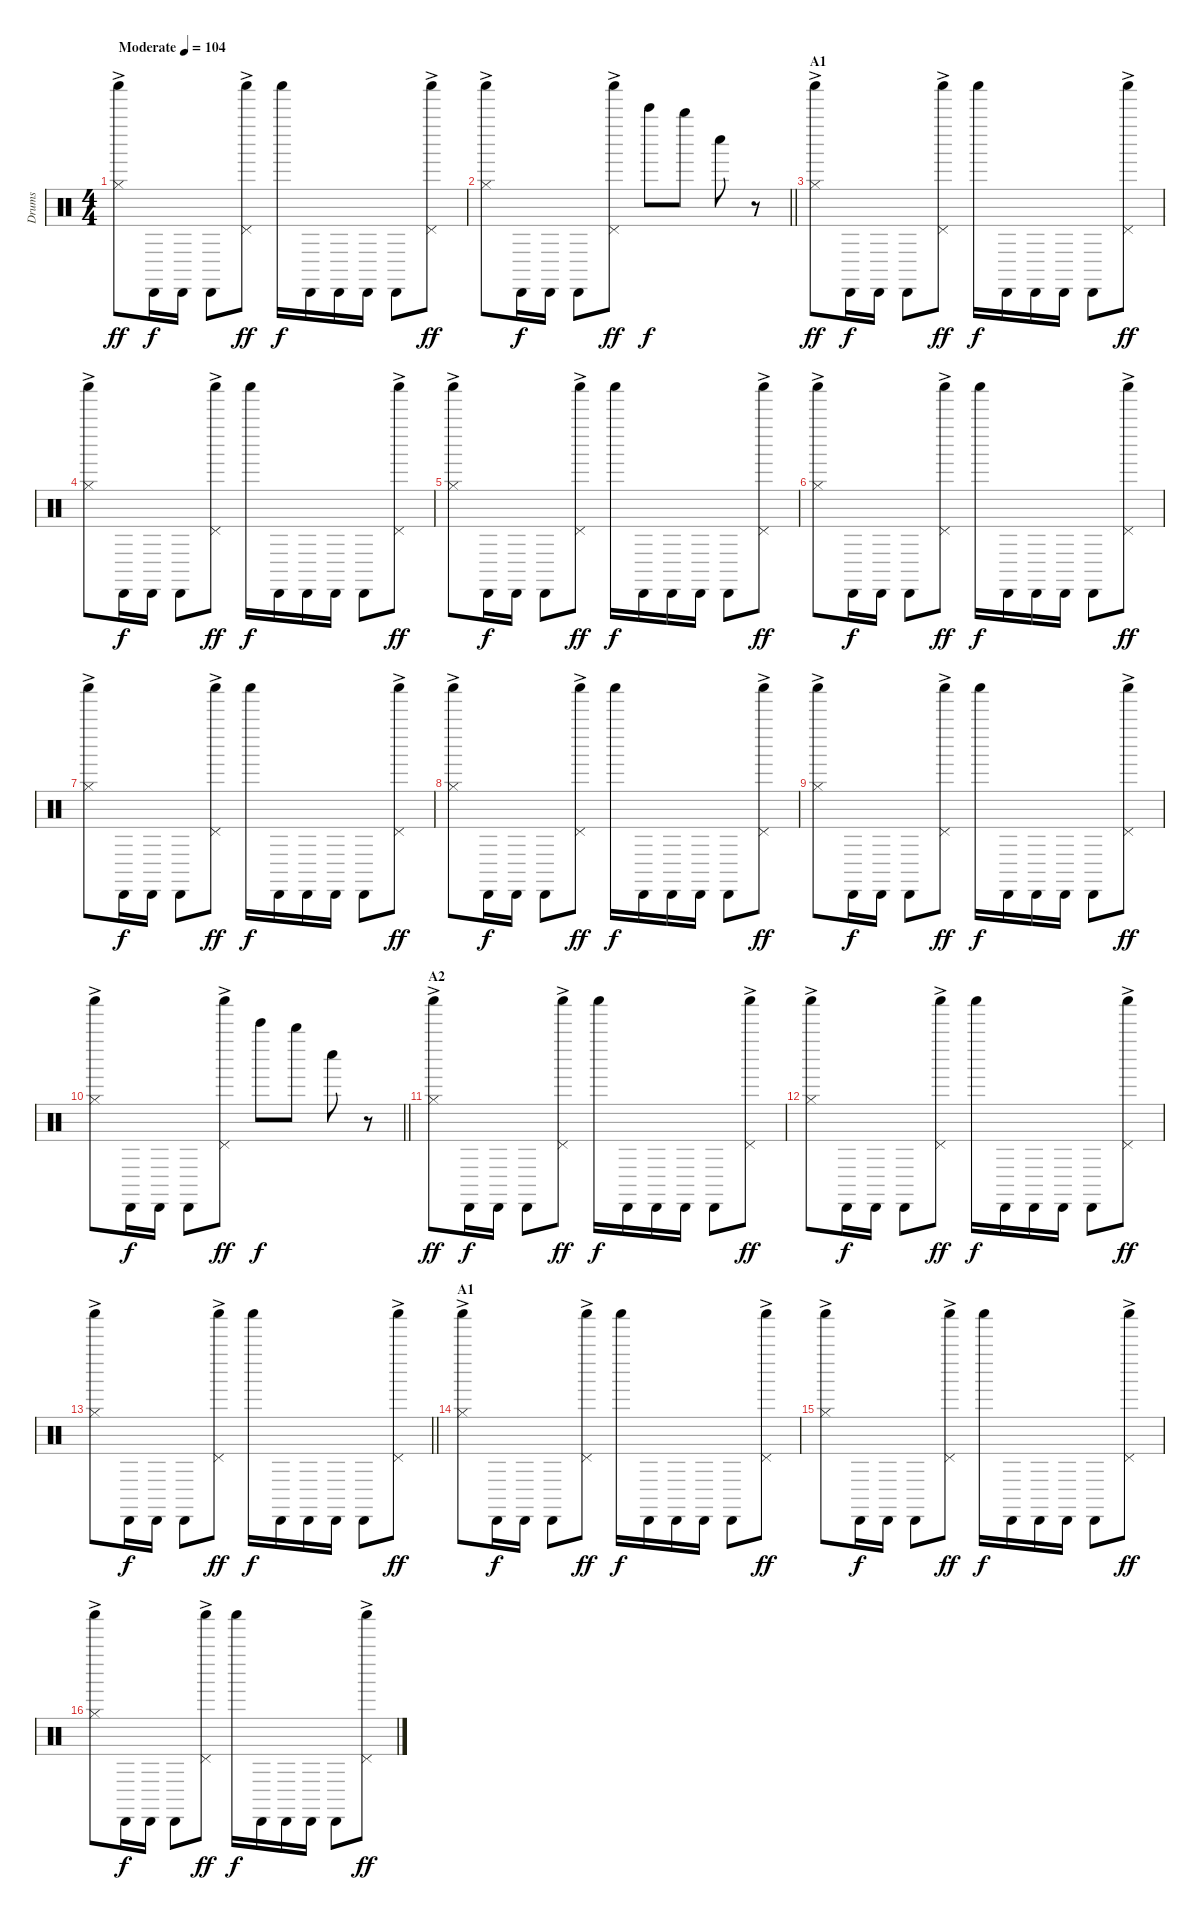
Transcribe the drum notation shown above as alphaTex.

\track ("Drums" "Drums") {instrument percussion}
\staff {score}
\articulation defaults
\ts (4 4)
\tempo (104 "Moderate")
\clef neutral
\ks c
("Shaker (hit)" "Hi-Hat (closed)"{ac}).8{dy ff} "Cabasa (hit)".16{dy f} "Cabasa (hit)".16 "Cabasa (hit)".8 ("Shaker (hit)" "Pedal Hi-Hat (hit)"{ac}).8{dy ff} "Shaker (hit)".16{dy f} "Cabasa (hit)".16 "Cabasa (hit)".16 "Cabasa (hit)".16 "Cabasa (hit)".8 ("Shaker (hit)" "Pedal Hi-Hat (hit)"{ac}).8{dy ff} |
\barLineRight lightlight
("Shaker (hit)" "Hi-Hat (closed)"{ac}).8 "Cabasa (hit)".16{dy f} "Cabasa (hit)".16 "Cabasa (hit)".8 ("Shaker (hit)" "Pedal Hi-Hat (hit)"{ac}).8{dy ff} "Bell Tree (hit)".8{dy f} "Whistle high (hit)".8 "Whistle low (hit)".8 r.8 |
\section ("" "A1")
("Shaker (hit)" "Hi-Hat (closed)"{ac}).8{dy ff} "Cabasa (hit)".16{dy f} "Cabasa (hit)".16 "Cabasa (hit)".8 ("Shaker (hit)" "Pedal Hi-Hat (hit)"{ac}).8{dy ff} "Shaker (hit)".16{dy f} "Cabasa (hit)".16 "Cabasa (hit)".16 "Cabasa (hit)".16 "Cabasa (hit)".8 ("Shaker (hit)" "Pedal Hi-Hat (hit)"{ac}).8{dy ff} |
("Shaker (hit)" "Hi-Hat (closed)"{ac}).8 "Cabasa (hit)".16{dy f} "Cabasa (hit)".16 "Cabasa (hit)".8 ("Shaker (hit)" "Pedal Hi-Hat (hit)"{ac}).8{dy ff} "Shaker (hit)".16{dy f} "Cabasa (hit)".16 "Cabasa (hit)".16 "Cabasa (hit)".16 "Cabasa (hit)".8 ("Shaker (hit)" "Pedal Hi-Hat (hit)"{ac}).8{dy ff} |
("Shaker (hit)" "Hi-Hat (closed)"{ac}).8 "Cabasa (hit)".16{dy f} "Cabasa (hit)".16 "Cabasa (hit)".8 ("Shaker (hit)" "Pedal Hi-Hat (hit)"{ac}).8{dy ff} "Shaker (hit)".16{dy f} "Cabasa (hit)".16 "Cabasa (hit)".16 "Cabasa (hit)".16 "Cabasa (hit)".8 ("Shaker (hit)" "Pedal Hi-Hat (hit)"{ac}).8{dy ff} |
("Shaker (hit)" "Hi-Hat (closed)"{ac}).8 "Cabasa (hit)".16{dy f} "Cabasa (hit)".16 "Cabasa (hit)".8 ("Shaker (hit)" "Pedal Hi-Hat (hit)"{ac}).8{dy ff} "Shaker (hit)".16{dy f} "Cabasa (hit)".16 "Cabasa (hit)".16 "Cabasa (hit)".16 "Cabasa (hit)".8 ("Shaker (hit)" "Pedal Hi-Hat (hit)"{ac}).8{dy ff} |
("Shaker (hit)" "Hi-Hat (closed)"{ac}).8 "Cabasa (hit)".16{dy f} "Cabasa (hit)".16 "Cabasa (hit)".8 ("Shaker (hit)" "Pedal Hi-Hat (hit)"{ac}).8{dy ff} "Shaker (hit)".16{dy f} "Cabasa (hit)".16 "Cabasa (hit)".16 "Cabasa (hit)".16 "Cabasa (hit)".8 ("Shaker (hit)" "Pedal Hi-Hat (hit)"{ac}).8{dy ff} |
("Shaker (hit)" "Hi-Hat (closed)"{ac}).8 "Cabasa (hit)".16{dy f} "Cabasa (hit)".16 "Cabasa (hit)".8 ("Shaker (hit)" "Pedal Hi-Hat (hit)"{ac}).8{dy ff} "Shaker (hit)".16{dy f} "Cabasa (hit)".16 "Cabasa (hit)".16 "Cabasa (hit)".16 "Cabasa (hit)".8 ("Shaker (hit)" "Pedal Hi-Hat (hit)"{ac}).8{dy ff} |
("Shaker (hit)" "Hi-Hat (closed)"{ac}).8 "Cabasa (hit)".16{dy f} "Cabasa (hit)".16 "Cabasa (hit)".8 ("Shaker (hit)" "Pedal Hi-Hat (hit)"{ac}).8{dy ff} "Shaker (hit)".16{dy f} "Cabasa (hit)".16 "Cabasa (hit)".16 "Cabasa (hit)".16 "Cabasa (hit)".8 ("Shaker (hit)" "Pedal Hi-Hat (hit)"{ac}).8{dy ff} |
\barLineRight lightlight
("Shaker (hit)" "Hi-Hat (closed)"{ac}).8 "Cabasa (hit)".16{dy f} "Cabasa (hit)".16 "Cabasa (hit)".8 ("Shaker (hit)" "Pedal Hi-Hat (hit)"{ac}).8{dy ff} "Bell Tree (hit)".8{dy f} "Whistle high (hit)".8 "Whistle low (hit)".8 r.8 |
\section ("" "A2")
("Shaker (hit)" "Hi-Hat (closed)"{ac}).8{dy ff} "Cabasa (hit)".16{dy f} "Cabasa (hit)".16 "Cabasa (hit)".8 ("Shaker (hit)" "Pedal Hi-Hat (hit)"{ac}).8{dy ff} "Shaker (hit)".16{dy f} "Cabasa (hit)".16 "Cabasa (hit)".16 "Cabasa (hit)".16 "Cabasa (hit)".8 ("Shaker (hit)" "Pedal Hi-Hat (hit)"{ac}).8{dy ff} |
("Shaker (hit)" "Hi-Hat (closed)"{ac}).8 "Cabasa (hit)".16{dy f} "Cabasa (hit)".16 "Cabasa (hit)".8 ("Shaker (hit)" "Pedal Hi-Hat (hit)"{ac}).8{dy ff} "Shaker (hit)".16{dy f} "Cabasa (hit)".16 "Cabasa (hit)".16 "Cabasa (hit)".16 "Cabasa (hit)".8 ("Shaker (hit)" "Pedal Hi-Hat (hit)"{ac}).8{dy ff} |
\barLineRight lightlight
("Shaker (hit)" "Hi-Hat (closed)"{ac}).8 "Cabasa (hit)".16{dy f} "Cabasa (hit)".16 "Cabasa (hit)".8 ("Shaker (hit)" "Pedal Hi-Hat (hit)"{ac}).8{dy ff} "Shaker (hit)".16{dy f} "Cabasa (hit)".16 "Cabasa (hit)".16 "Cabasa (hit)".16 "Cabasa (hit)".8 ("Shaker (hit)" "Pedal Hi-Hat (hit)"{ac}).8{dy ff} |
\section ("" "A1")
("Shaker (hit)" "Hi-Hat (closed)"{ac}).8 "Cabasa (hit)".16{dy f} "Cabasa (hit)".16 "Cabasa (hit)".8 ("Shaker (hit)" "Pedal Hi-Hat (hit)"{ac}).8{dy ff} "Shaker (hit)".16{dy f} "Cabasa (hit)".16 "Cabasa (hit)".16 "Cabasa (hit)".16 "Cabasa (hit)".8 ("Shaker (hit)" "Pedal Hi-Hat (hit)"{ac}).8{dy ff} |
("Shaker (hit)" "Hi-Hat (closed)"{ac}).8 "Cabasa (hit)".16{dy f} "Cabasa (hit)".16 "Cabasa (hit)".8 ("Shaker (hit)" "Pedal Hi-Hat (hit)"{ac}).8{dy ff} "Shaker (hit)".16{dy f} "Cabasa (hit)".16 "Cabasa (hit)".16 "Cabasa (hit)".16 "Cabasa (hit)".8 ("Shaker (hit)" "Pedal Hi-Hat (hit)"{ac}).8{dy ff} |
("Shaker (hit)" "Hi-Hat (closed)"{ac}).8 "Cabasa (hit)".16{dy f} "Cabasa (hit)".16 "Cabasa (hit)".8 ("Shaker (hit)" "Pedal Hi-Hat (hit)"{ac}).8{dy ff} "Shaker (hit)".16{dy f} "Cabasa (hit)".16 "Cabasa (hit)".16 "Cabasa (hit)".16 "Cabasa (hit)".8 ("Shaker (hit)" "Pedal Hi-Hat (hit)"{ac}).8{dy ff}
